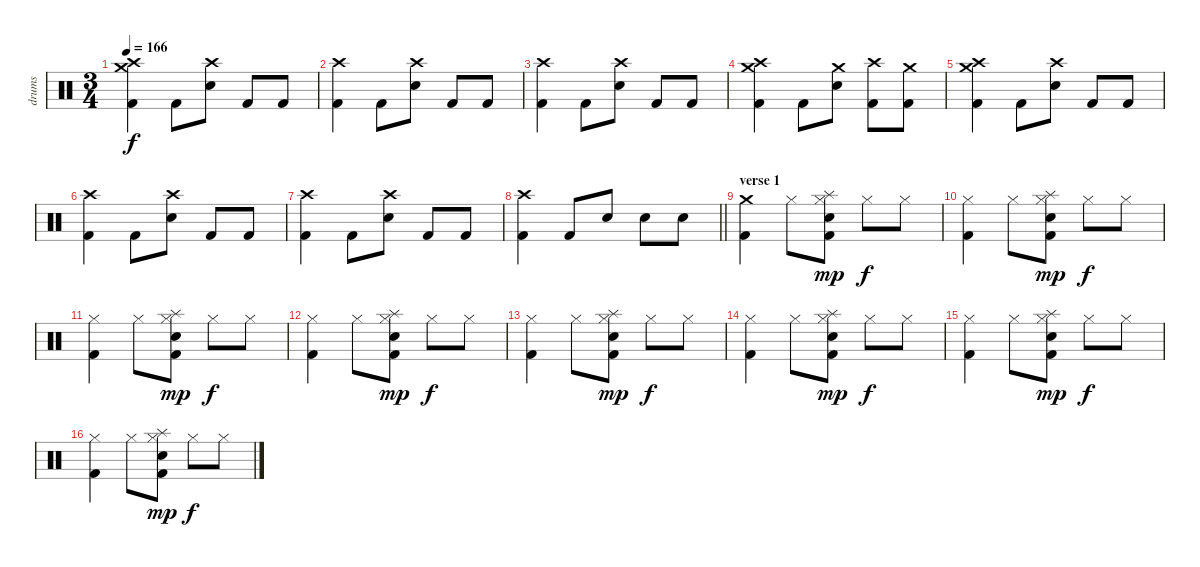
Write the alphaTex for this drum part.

\track ("drums" "drums") {instrument percussion}
\staff {score}
\articulation defaults
\ts (3 4)
\tempo 166
\clef neutral
\ks c
("Crash medium (hit)" "Crash high (hit)" "Kick (hit) 2").4{dy f} "Kick (hit) 2".8 ("Crash high (hit)" "Electric Snare (hit)").8 "Kick (hit) 2".8 "Kick (hit) 2".8 |
("Crash high (hit)" "Kick (hit) 2").4 "Kick (hit) 2".8 ("Crash high (hit)" "Electric Snare (hit)").8 "Kick (hit) 2".8 "Kick (hit) 2".8 |
("Crash high (hit)" "Kick (hit) 2").4 "Kick (hit) 2".8 ("Crash high (hit)" "Electric Snare (hit)").8 "Kick (hit) 2".8 "Kick (hit) 2".8 |
("Crash medium (hit)" "Crash high (hit)" "Kick (hit) 2").4 "Kick (hit) 2".8 ("Crash medium (hit)" "Electric Snare (hit)").8 ("Crash high (hit)" "Kick (hit) 2").8 ("Crash medium (hit)" "Kick (hit) 2").8 |
("Crash medium (hit)" "Crash high (hit)" "Kick (hit) 2").4 "Kick (hit) 2".8 ("Crash high (hit)" "Electric Snare (hit)").8 "Kick (hit) 2".8 "Kick (hit) 2".8 |
("Crash high (hit)" "Kick (hit) 2").4 "Kick (hit) 2".8 ("Crash high (hit)" "Electric Snare (hit)").8 "Kick (hit) 2".8 "Kick (hit) 2".8 |
("Crash high (hit)" "Kick (hit) 2").4 "Kick (hit) 2".8 ("Crash high (hit)" "Electric Snare (hit)").8 "Kick (hit) 2".8 "Kick (hit) 2".8 |
\barLineRight lightlight
("Crash high (hit)" "Kick (hit) 2").4 "Kick (hit) 2".8 "Electric Snare (hit)".8 "Electric Snare (hit)".8 "Electric Snare (hit)".8 |
\section ("" "verse 1")
("Crash medium (hit)" "Kick (hit) 2").4 "Hi-Hat (closed)".8 ("Splash (hit)" "Hi-Hat (closed)" "Electric Snare (hit)" "Kick (hit) 2").8{dy mp} "Hi-Hat (closed)".8{dy f} "Hi-Hat (closed)".8 |
("Hi-Hat (closed)" "Kick (hit) 2").4 "Hi-Hat (closed)".8 ("Splash (hit)" "Hi-Hat (closed)" "Electric Snare (hit)" "Kick (hit) 2").8{dy mp} "Hi-Hat (closed)".8{dy f} "Hi-Hat (closed)".8 |
("Hi-Hat (closed)" "Kick (hit) 2").4 "Hi-Hat (closed)".8 ("Splash (hit)" "Hi-Hat (closed)" "Electric Snare (hit)" "Kick (hit) 2").8{dy mp} "Hi-Hat (closed)".8{dy f} "Hi-Hat (closed)".8 |
("Hi-Hat (closed)" "Kick (hit) 2").4 "Hi-Hat (closed)".8 ("Splash (hit)" "Hi-Hat (closed)" "Electric Snare (hit)" "Kick (hit) 2").8{dy mp} "Hi-Hat (closed)".8{dy f} "Hi-Hat (closed)".8 |
("Hi-Hat (closed)" "Kick (hit) 2").4 "Hi-Hat (closed)".8 ("Splash (hit)" "Hi-Hat (closed)" "Electric Snare (hit)" "Kick (hit) 2").8{dy mp} "Hi-Hat (closed)".8{dy f} "Hi-Hat (closed)".8 |
("Hi-Hat (closed)" "Kick (hit) 2").4 "Hi-Hat (closed)".8 ("Splash (hit)" "Hi-Hat (closed)" "Electric Snare (hit)" "Kick (hit) 2").8{dy mp} "Hi-Hat (closed)".8{dy f} "Hi-Hat (closed)".8 |
("Hi-Hat (closed)" "Kick (hit) 2").4 "Hi-Hat (closed)".8 ("Splash (hit)" "Hi-Hat (closed)" "Electric Snare (hit)" "Kick (hit) 2").8{dy mp} "Hi-Hat (closed)".8{dy f} "Hi-Hat (closed)".8 |
("Hi-Hat (closed)" "Kick (hit) 2").4 "Hi-Hat (closed)".8 ("Splash (hit)" "Hi-Hat (closed)" "Electric Snare (hit)" "Kick (hit) 2").8{dy mp} "Hi-Hat (closed)".8{dy f} "Hi-Hat (closed)".8
